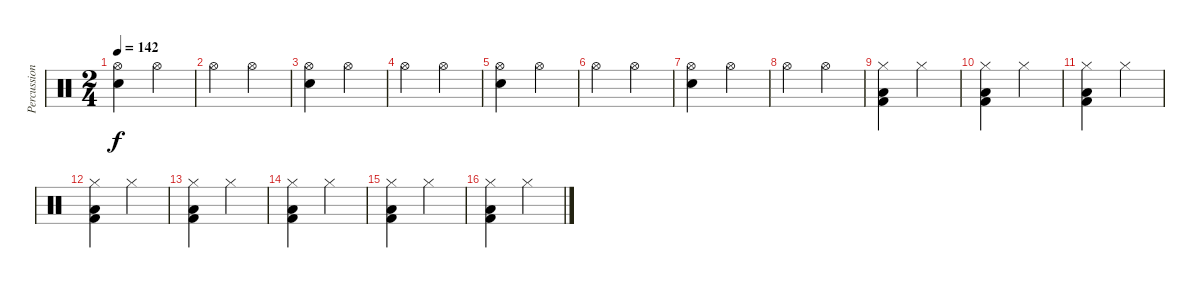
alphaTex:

\track ("Percussions" "Percussion") {instrument percussion}
\staff {score}
\articulation defaults
\ts (2 4)
\tempo 142
\clef neutral
\ks c
("Hi-Hat (open)" "Snare (hit) 2").4{dy f} "Hi-Hat (open)".4 |
"Hi-Hat (open)".4 "Hi-Hat (open)".4 |
("Hi-Hat (open)" "Snare (hit) 2").4 "Hi-Hat (open)".4 |
"Hi-Hat (open)".4 "Hi-Hat (open)".4 |
("Hi-Hat (open)" "Snare (hit) 2").4 "Hi-Hat (open)".4 |
"Hi-Hat (open)".4 "Hi-Hat (open)".4 |
("Hi-Hat (open)" "Snare (hit) 2").4 "Hi-Hat (open)".4 |
"Hi-Hat (open)".4 "Hi-Hat (open)".4 |
("Hi-Hat (closed)" "Low Tom (hit)" "Kick (hit) 2").4 "Hi-Hat (closed)".4 |
("Hi-Hat (closed)" "Low Tom (hit)" "Kick (hit) 2").4 "Hi-Hat (closed)".4 |
("Hi-Hat (closed)" "Low Tom (hit)" "Kick (hit) 2").4 "Hi-Hat (closed)".4 |
("Hi-Hat (closed)" "Low Tom (hit)" "Kick (hit) 2").4 "Hi-Hat (closed)".4 |
("Hi-Hat (closed)" "Low Tom (hit)" "Kick (hit) 2").4 "Hi-Hat (closed)".4 |
("Hi-Hat (closed)" "Low Tom (hit)" "Kick (hit) 2").4 "Hi-Hat (closed)".4 |
("Hi-Hat (closed)" "Low Tom (hit)" "Kick (hit) 2").4 "Hi-Hat (closed)".4 |
("Hi-Hat (closed)" "Low Tom (hit)" "Kick (hit) 2").4 "Hi-Hat (closed)".4
